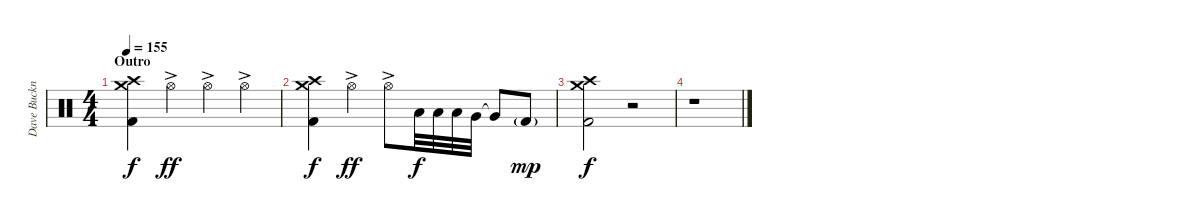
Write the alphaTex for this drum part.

\track ("Dave Buckner (Drums)" "Dave Buckn") {instrument percussion}
\staff {score}
\articulation defaults
\ts (4 4)
\section ("" "Outro")
\tempo 155
\clef neutral
\ks c
("Crash medium (hit)" "Crash high (hit)" "Kick (hit) 2").4{dy f} "Hi-Hat (open)"{ac}.4{dy ff} "Hi-Hat (open)"{ac}.4 "Hi-Hat (open)"{ac}.4 |
("Crash medium (hit)" "Crash high (hit)" "Kick (hit) 2").4{dy f} "Hi-Hat (open)"{ac}.4{dy ff} "Hi-Hat (open)"{ac}.8 "Low Tom (hit)".32{dy f} "Low Tom (hit)".32 "Low Tom (hit)".32 "Very Low Tom (hit)".32 "Very Low Tom (hit)"{t}.8 "Kick (hit) 2"{g}.8{dy mp} |
("Crash medium (hit)" "Crash high (hit)" "Kick (hit) 2").2{dy f} r.2 |
r.1
